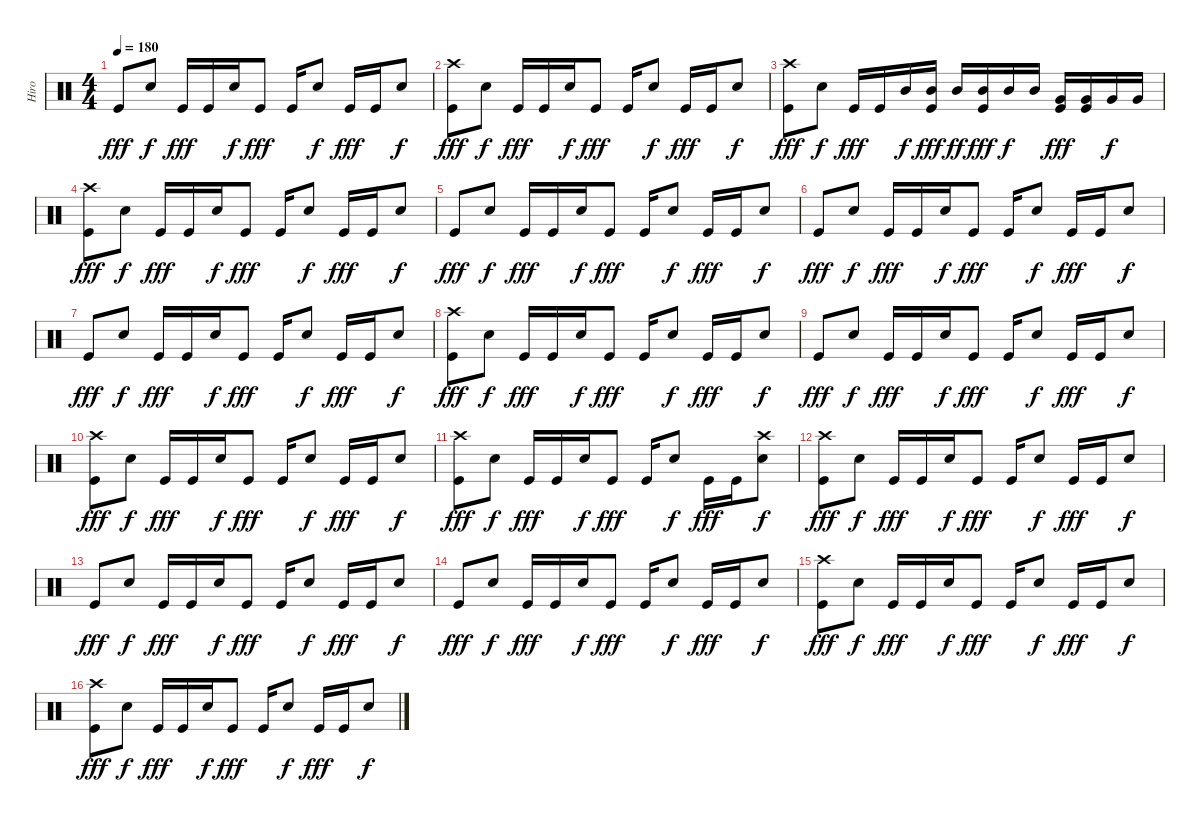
\track ("Hiro" "Hiro") {instrument percussion}
\staff {score}
\articulation defaults
\ts (4 4)
\tempo 180
\clef neutral
\ks c "Kick (hit)".8{dy fff} "Electric Snare (hit)".8{dy f} "Kick (hit)".16{dy fff} "Kick (hit)".16 "Electric Snare (hit)".16{dy f} "Kick (hit)".8{dy fff} "Kick (hit)".16 "Electric Snare (hit)".8{dy f} "Kick (hit)".16{dy fff} "Kick (hit)".16 "Electric Snare (hit)".8{dy f}
|
("Crash high (hit)" "Kick (hit)").8{dy fff} "Electric Snare (hit)".8{dy f} "Kick (hit)".16{dy fff} "Kick (hit)".16 "Electric Snare (hit)".16{dy f} "Kick (hit)".8{dy fff} "Kick (hit)".16 "Electric Snare (hit)".8{dy f} "Kick (hit)".16{dy fff} "Kick (hit)".16 "Electric Snare (hit)".8{dy f} |
("Crash high (hit)" "Kick (hit)").8{dy fff} "Electric Snare (hit)".8{dy f} "Kick (hit)".16{dy fff} "Kick (hit)".16 "Mid Tom (hit)".16{dy f} ("Mid Tom (hit)" "Kick (hit)").16{dy fff} "Mid Tom (hit)".16{dy ff} ("Mid Tom (hit)" "Kick (hit)").16{dy fff} "Mid Tom (hit)".16{dy f} "Mid Tom (hit)".16 ("Very Low Tom (hit)" "Kick (hit)").16{dy fff} ("Very Low Tom (hit)" "Kick (hit)").16 "Very Low Tom (hit)".16{dy f} "Very Low Tom (hit)".16 |
("Crash high (hit)" "Kick (hit)").8{dy fff} "Electric Snare (hit)".8{dy f} "Kick (hit)".16{dy fff} "Kick (hit)".16 "Electric Snare (hit)".16{dy f} "Kick (hit)".8{dy fff} "Kick (hit)".16 "Electric Snare (hit)".8{dy f} "Kick (hit)".16{dy fff} "Kick (hit)".16 "Electric Snare (hit)".8{dy f} |
"Kick (hit)".8{dy fff} "Electric Snare (hit)".8{dy f} "Kick (hit)".16{dy fff} "Kick (hit)".16 "Electric Snare (hit)".16{dy f} "Kick (hit)".8{dy fff} "Kick (hit)".16 "Electric Snare (hit)".8{dy f} "Kick (hit)".16{dy fff} "Kick (hit)".16 "Electric Snare (hit)".8{dy f} |
"Kick (hit)".8{dy fff} "Electric Snare (hit)".8{dy f} "Kick (hit)".16{dy fff} "Kick (hit)".16 "Electric Snare (hit)".16{dy f} "Kick (hit)".8{dy fff} "Kick (hit)".16 "Electric Snare (hit)".8{dy f} "Kick (hit)".16{dy fff} "Kick (hit)".16 "Electric Snare (hit)".8{dy f} |
"Kick (hit)".8{dy fff} "Electric Snare (hit)".8{dy f} "Kick (hit)".16{dy fff} "Kick (hit)".16 "Electric Snare (hit)".16{dy f} "Kick (hit)".8{dy fff} "Kick (hit)".16 "Electric Snare (hit)".8{dy f} "Kick (hit)".16{dy fff} "Kick (hit)".16 "Electric Snare (hit)".8{dy f} |
("Crash high (hit)" "Kick (hit)").8{dy fff} "Electric Snare (hit)".8{dy f} "Kick (hit)".16{dy fff} "Kick (hit)".16 "Electric Snare (hit)".16{dy f} "Kick (hit)".8{dy fff} "Kick (hit)".16 "Electric Snare (hit)".8{dy f} "Kick (hit)".16{dy fff} "Kick (hit)".16 "Electric Snare (hit)".8{dy f} |
"Kick (hit)".8{dy fff} "Electric Snare (hit)".8{dy f} "Kick (hit)".16{dy fff} "Kick (hit)".16 "Electric Snare (hit)".16{dy f} "Kick (hit)".8{dy fff} "Kick (hit)".16 "Electric Snare (hit)".8{dy f} "Kick (hit)".16{dy fff} "Kick (hit)".16 "Electric Snare (hit)".8{dy f} |
("Crash high (hit)" "Kick (hit)").8{dy fff} "Electric Snare (hit)".8{dy f} "Kick (hit)".16{dy fff} "Kick (hit)".16 "Electric Snare (hit)".16{dy f} "Kick (hit)".8{dy fff} "Kick (hit)".16 "Electric Snare (hit)".8{dy f} "Kick (hit)".16{dy fff} "Kick (hit)".16 "Electric Snare (hit)".8{dy f} |
("Crash high (hit)" "Kick (hit)").8{dy fff} "Electric Snare (hit)".8{dy f} "Kick (hit)".16{dy fff} "Kick (hit)".16 "Electric Snare (hit)".16{dy f} "Kick (hit)".8{dy fff} "Kick (hit)".16 "Electric Snare (hit)".8{dy f} "Kick (hit)".16{dy fff} "Kick (hit)".16 ("Electric Snare (hit)" "Crash high (hit)").8{dy f} |
("Crash high (hit)" "Kick (hit)").8{dy fff} "Electric Snare (hit)".8{dy f} "Kick (hit)".16{dy fff} "Kick (hit)".16 "Electric Snare (hit)".16{dy f} "Kick (hit)".8{dy fff} "Kick (hit)".16 "Electric Snare (hit)".8{dy f} "Kick (hit)".16{dy fff} "Kick (hit)".16 "Electric Snare (hit)".8{dy f} |
"Kick (hit)".8{dy fff} "Electric Snare (hit)".8{dy f} "Kick (hit)".16{dy fff} "Kick (hit)".16 "Electric Snare (hit)".16{dy f} "Kick (hit)".8{dy fff} "Kick (hit)".16 "Electric Snare (hit)".8{dy f} "Kick (hit)".16{dy fff} "Kick (hit)".16 "Electric Snare (hit)".8{dy f} |
"Kick (hit)".8{dy fff} "Electric Snare (hit)".8{dy f} "Kick (hit)".16{dy fff} "Kick (hit)".16 "Electric Snare (hit)".16{dy f} "Kick (hit)".8{dy fff} "Kick (hit)".16 "Electric Snare (hit)".8{dy f} "Kick (hit)".16{dy fff} "Kick (hit)".16 "Electric Snare (hit)".8{dy f} |
("Crash high (hit)" "Kick (hit)").8{dy fff} "Electric Snare (hit)".8{dy f} "Kick (hit)".16{dy fff} "Kick (hit)".16 "Electric Snare (hit)".16{dy f} "Kick (hit)".8{dy fff} "Kick (hit)".16 "Electric Snare (hit)".8{dy f} "Kick (hit)".16{dy fff} "Kick (hit)".16 "Electric Snare (hit)".8{dy f} |
("Crash high (hit)" "Kick (hit)").8{dy fff} "Electric Snare (hit)".8{dy f} "Kick (hit)".16{dy fff} "Kick (hit)".16 "Electric Snare (hit)".16{dy f} "Kick (hit)".8{dy fff} "Kick (hit)".16 "Electric Snare (hit)".8{dy f} "Kick (hit)".16{dy fff} "Kick (hit)".16 "Electric Snare (hit)".8{dy f}
